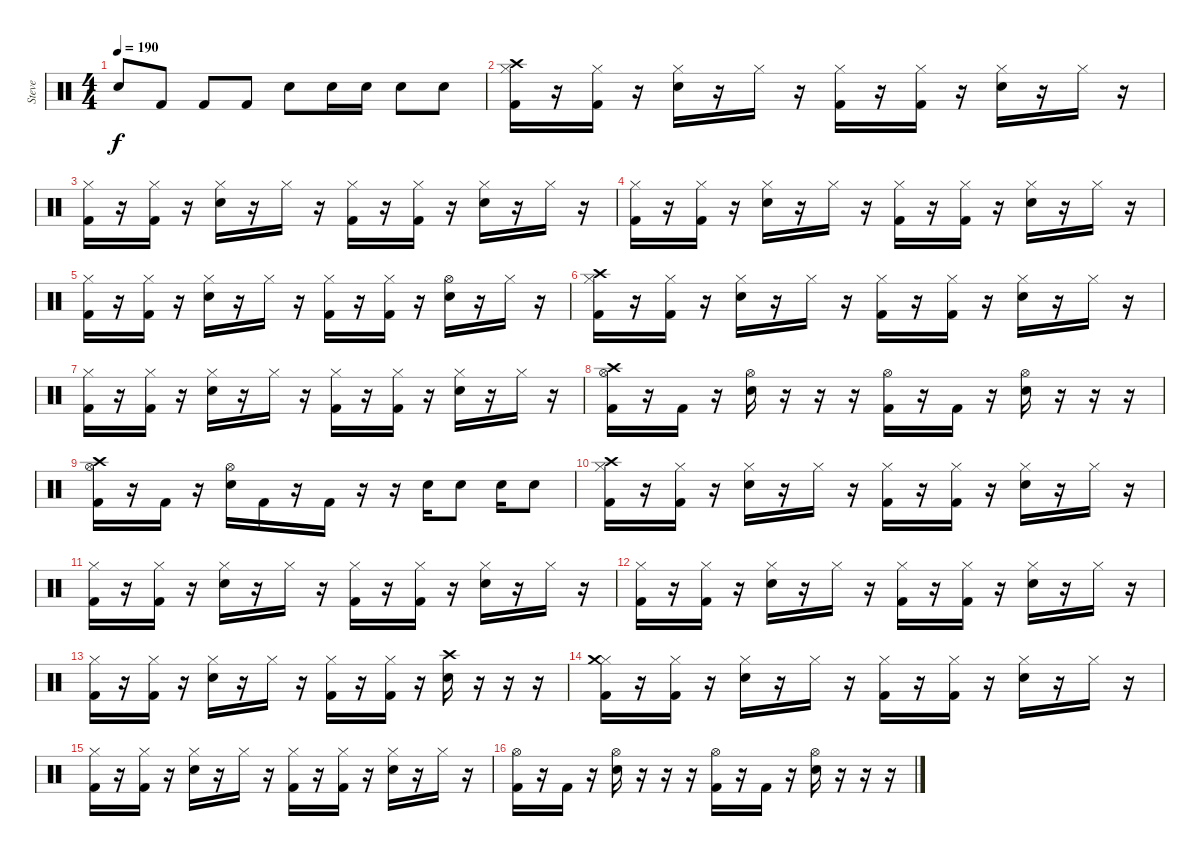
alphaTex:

\track ("Steve" "Steve") {instrument percussion}
\staff {score}
\articulation defaults
\ts (4 4)
\tempo 190
\clef neutral
\ks c "Electric Snare (hit)".8{dy f} "Kick (hit) 2".8 "Kick (hit) 2".8 "Kick (hit) 2".8 "Snare (hit) 2".8 "Snare (hit) 2".16 "Snare (hit) 2".16 "Snare (hit) 2".8 "Snare (hit) 2".8
|
("Hi-Hat (closed)" "Crash high (hit)" "Kick (hit) 2").16 r.16 ("Hi-Hat (closed)" "Kick (hit) 2").16 r.16 ("Hi-Hat (closed)" "Snare (hit) 2").16 r.16 "Hi-Hat (closed)".16 r.16 ("Hi-Hat (closed)" "Kick (hit) 2").16 r.16 ("Hi-Hat (closed)" "Kick (hit) 2").16 r.16 ("Hi-Hat (closed)" "Snare (hit) 2").16 r.16 "Hi-Hat (closed)".16 r.16 |
("Hi-Hat (closed)" "Kick (hit) 2").16 r.16 ("Hi-Hat (closed)" "Kick (hit) 2").16 r.16 ("Hi-Hat (closed)" "Snare (hit) 2").16 r.16 "Hi-Hat (closed)".16 r.16 ("Hi-Hat (closed)" "Kick (hit) 2").16 r.16 ("Hi-Hat (closed)" "Kick (hit) 2").16 r.16 ("Hi-Hat (closed)" "Snare (hit) 2").16 r.16 "Hi-Hat (closed)".16 r.16 |
("Hi-Hat (closed)" "Kick (hit) 2").16 r.16 ("Hi-Hat (closed)" "Kick (hit) 2").16 r.16 ("Hi-Hat (closed)" "Snare (hit) 2").16 r.16 "Hi-Hat (closed)".16 r.16 ("Hi-Hat (closed)" "Kick (hit) 2").16 r.16 ("Hi-Hat (closed)" "Kick (hit) 2").16 r.16 ("Hi-Hat (closed)" "Snare (hit) 2").16 r.16 "Hi-Hat (closed)".16 r.16 |
("Hi-Hat (closed)" "Kick (hit) 2").16 r.16 ("Hi-Hat (closed)" "Kick (hit) 2").16 r.16 ("Hi-Hat (closed)" "Snare (hit) 2").16 r.16 "Hi-Hat (closed)".16 r.16 ("Hi-Hat (closed)" "Kick (hit) 2").16 r.16 ("Hi-Hat (closed)" "Kick (hit) 2").16 r.16 ("Hi-Hat (open)" "Snare (hit) 2").16 r.16 "Hi-Hat (closed)".16 r.16 |
("Hi-Hat (closed)" "Crash high (hit)" "Kick (hit) 2").16 r.16 ("Hi-Hat (closed)" "Kick (hit) 2").16 r.16 ("Hi-Hat (closed)" "Snare (hit) 2").16 r.16 "Hi-Hat (closed)".16 r.16 ("Hi-Hat (closed)" "Kick (hit) 2").16 r.16 ("Hi-Hat (closed)" "Kick (hit) 2").16 r.16 ("Hi-Hat (closed)" "Snare (hit) 2").16 r.16 "Hi-Hat (closed)".16 r.16 |
("Hi-Hat (closed)" "Kick (hit) 2").16 r.16 ("Hi-Hat (closed)" "Kick (hit) 2").16 r.16 ("Hi-Hat (closed)" "Snare (hit) 2").16 r.16 "Hi-Hat (closed)".16 r.16 ("Hi-Hat (closed)" "Kick (hit) 2").16 r.16 ("Hi-Hat (closed)" "Kick (hit) 2").16 r.16 ("Hi-Hat (closed)" "Snare (hit) 2").16 r.16 "Hi-Hat (closed)".16 r.16 |
("Hi-Hat (open)" "Crash high (hit)" "Kick (hit) 2").16 r.16 "Kick (hit) 2".16 r.16 ("Hi-Hat (open)" "Snare (hit) 2").16 r.16 r.16 r.16 ("Hi-Hat (open)" "Kick (hit) 2").16 r.16 "Kick (hit) 2".16 r.16 ("Hi-Hat (open)" "Snare (hit) 2").16 r.16 r.16 r.16 |
("Hi-Hat (open)" "Crash high (hit)" "Kick (hit) 2").16 r.16 "Kick (hit) 2".16 r.16 ("Hi-Hat (open)" "Snare (hit) 2").16 "Kick (hit) 2".16 r.16 "Kick (hit) 2".16 r.16 r.16 "Snare (hit) 2".16 "Snare (hit) 2".8 "Snare (hit) 2".16 "Snare (hit) 2".8 |
("Hi-Hat (closed)" "Crash high (hit)" "Kick (hit) 2").16 r.16 ("Hi-Hat (closed)" "Kick (hit) 2").16 r.16 ("Hi-Hat (closed)" "Snare (hit) 2").16 r.16 "Hi-Hat (closed)".16 r.16 ("Hi-Hat (closed)" "Kick (hit) 2").16 r.16 ("Hi-Hat (closed)" "Kick (hit) 2").16 r.16 ("Hi-Hat (closed)" "Snare (hit) 2").16 r.16 "Hi-Hat (closed)".16 r.16 |
("Hi-Hat (closed)" "Kick (hit) 2").16 r.16 ("Hi-Hat (closed)" "Kick (hit) 2").16 r.16 ("Hi-Hat (closed)" "Snare (hit) 2").16 r.16 "Hi-Hat (closed)".16 r.16 ("Hi-Hat (closed)" "Kick (hit) 2").16 r.16 ("Hi-Hat (closed)" "Kick (hit) 2").16 r.16 ("Hi-Hat (closed)" "Snare (hit) 2").16 r.16 "Hi-Hat (closed)".16 r.16 |
("Hi-Hat (closed)" "Kick (hit) 2").16 r.16 ("Hi-Hat (closed)" "Kick (hit) 2").16 r.16 ("Hi-Hat (closed)" "Snare (hit) 2").16 r.16 "Hi-Hat (closed)".16 r.16 ("Hi-Hat (closed)" "Kick (hit) 2").16 r.16 ("Hi-Hat (closed)" "Kick (hit) 2").16 r.16 ("Hi-Hat (closed)" "Snare (hit) 2").16 r.16 "Hi-Hat (closed)".16 r.16 |
("Hi-Hat (closed)" "Kick (hit) 2").16 r.16 ("Hi-Hat (closed)" "Kick (hit) 2").16 r.16 ("Hi-Hat (closed)" "Snare (hit) 2").16 r.16 "Hi-Hat (closed)".16 r.16 ("Hi-Hat (closed)" "Kick (hit) 2").16 r.16 ("Hi-Hat (closed)" "Kick (hit) 2").16 r.16 ("Crash high (hit)" "Snare (hit) 2").16 r.16 r.16 r.16 |
("Hi-Hat (closed)" "Crash medium (hit)" "Kick (hit) 2").16 r.16 ("Hi-Hat (closed)" "Kick (hit) 2").16 r.16 ("Hi-Hat (closed)" "Snare (hit) 2").16 r.16 "Hi-Hat (closed)".16 r.16 ("Hi-Hat (closed)" "Kick (hit) 2").16 r.16 ("Hi-Hat (closed)" "Kick (hit) 2").16 r.16 ("Hi-Hat (closed)" "Snare (hit) 2").16 r.16 "Hi-Hat (closed)".16 r.16 |
("Hi-Hat (closed)" "Kick (hit) 2").16 r.16 ("Hi-Hat (closed)" "Kick (hit) 2").16 r.16 ("Hi-Hat (closed)" "Snare (hit) 2").16 r.16 "Hi-Hat (closed)".16 r.16 ("Hi-Hat (closed)" "Kick (hit) 2").16 r.16 ("Hi-Hat (closed)" "Kick (hit) 2").16 r.16 ("Hi-Hat (closed)" "Snare (hit) 2").16 r.16 "Hi-Hat (closed)".16 r.16 |
("Hi-Hat (open)" "Kick (hit) 2").16 r.16 "Kick (hit) 2".16 r.16 ("Hi-Hat (open)" "Snare (hit) 2").16 r.16 r.16 r.16 ("Hi-Hat (open)" "Kick (hit) 2").16 r.16 "Kick (hit) 2".16 r.16 ("Hi-Hat (open)" "Snare (hit) 2").16 r.16 r.16 r.16
